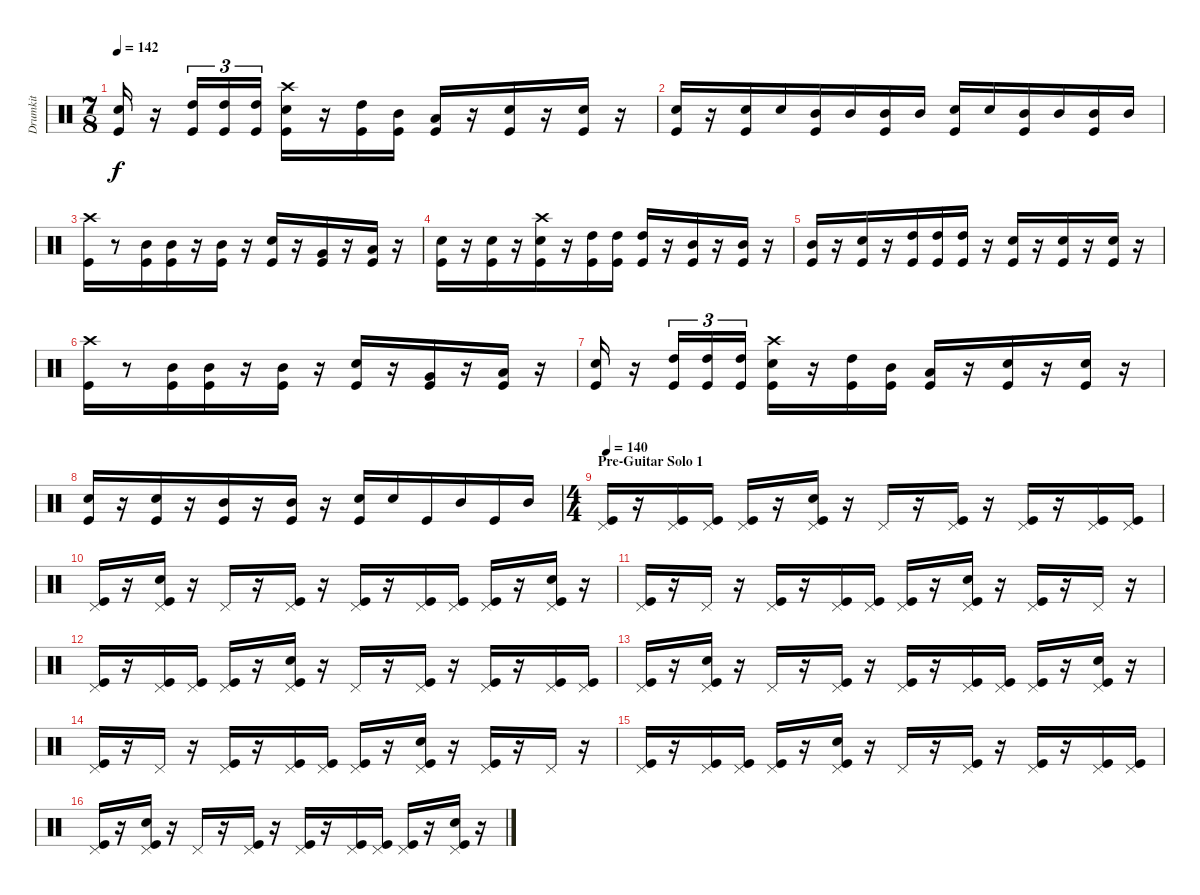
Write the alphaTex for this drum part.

\track ("Drumkit" "Drumkit") {instrument percussion}
\staff {score}
\articulation defaults
\ts (7 8)
\tempo 142
\clef neutral
\ks c
("Snare (hit) 2" "Kick (hit)").16{dy f} r.16 ("High Tom (hit)" "Kick (hit)").16{tu (3 2)} ("High Tom (hit)" "Kick (hit)").16{tu (3 2)} ("High Tom (hit)" "Kick (hit)").16{tu (3 2)} ("Crash high (hit)" "Snare (hit) 2" "Kick (hit)").16 r.16 ("High Tom (hit)" "Kick (hit)").16 ("Mid Tom (hit)" "Kick (hit)").16 ("Low Tom (hit)" "Kick (hit)").16 r.16 ("Snare (hit) 2" "Kick (hit)").16 r.16 ("Snare (hit) 2" "Kick (hit)").16 r.16 |
("Snare (hit) 2" "Kick (hit)").16 r.16 ("Snare (hit) 2" "Kick (hit)").16 "Snare (hit) 2".16 ("Mid Tom (hit)" "Kick (hit)").16 "Mid Tom (hit)".16 ("Mid Tom (hit)" "Kick (hit)").16 "Mid Tom (hit)".16 ("Snare (hit) 2" "Kick (hit)").16 "Snare (hit) 2".16 ("Mid Tom (hit)" "Kick (hit)").16 "Mid Tom (hit)".16 ("Mid Tom (hit)" "Kick (hit)").16 "Mid Tom (hit)".16 |
("Crash high (hit)" "Kick (hit)").16 r.8 ("Mid Tom (hit)" "Kick (hit)").16 ("Mid Tom (hit)" "Kick (hit)").16 r.16 ("Mid Tom (hit)" "Kick (hit)").16 r.16 ("Snare (hit) 2" "Kick (hit)").16 r.16 ("Very Low Tom (hit)" "Kick (hit)").16 r.16 ("Low Tom (hit)" "Kick (hit)").16 r.16 |
("Snare (hit) 2" "Kick (hit)").16 r.16 ("Snare (hit) 2" "Kick (hit)").16 r.16 ("Crash high (hit)" "Snare (hit) 2" "Kick (hit)").16 r.16 ("High Tom (hit)" "Kick (hit)").16 ("High Tom (hit)" "Kick (hit)").16 ("High Tom (hit)" "Kick (hit)").16 r.16 ("Mid Tom (hit)" "Kick (hit)").16 r.16 ("Mid Tom (hit)" "Kick (hit)").16 r.16 |
("Mid Tom (hit)" "Kick (hit)").16 r.16 ("Snare (hit) 2" "Kick (hit)").16 r.16 ("High Tom (hit)" "Kick (hit)").16 ("High Tom (hit)" "Kick (hit)").16 ("High Tom (hit)" "Kick (hit)").16 r.16 ("Snare (hit) 2" "Kick (hit)").16 r.16 ("Snare (hit) 2" "Kick (hit)").16 r.16 ("Snare (hit) 2" "Kick (hit)").16 r.16 |
("Crash high (hit)" "Kick (hit)").16 r.8 ("Mid Tom (hit)" "Kick (hit)").16 ("Mid Tom (hit)" "Kick (hit)").16 r.16 ("Mid Tom (hit)" "Kick (hit)").16 r.16 ("Snare (hit) 2" "Kick (hit)").16 r.16 ("Very Low Tom (hit)" "Kick (hit)").16 r.16 ("Low Tom (hit)" "Kick (hit)").16 r.16 |
("Snare (hit) 2" "Kick (hit)").16 r.16 ("High Tom (hit)" "Kick (hit)").16{tu (3 2)} ("High Tom (hit)" "Kick (hit)").16{tu (3 2)} ("High Tom (hit)" "Kick (hit)").16{tu (3 2)} ("Crash high (hit)" "Snare (hit) 2" "Kick (hit)").16 r.16 ("High Tom (hit)" "Kick (hit)").16 ("Mid Tom (hit)" "Kick (hit)").16 ("Low Tom (hit)" "Kick (hit)").16 r.16 ("Snare (hit) 2" "Kick (hit)").16 r.16 ("Snare (hit) 2" "Kick (hit)").16 r.16 |
("Snare (hit) 2" "Kick (hit)").16 r.16 ("Snare (hit) 2" "Kick (hit)").16 r.16 ("Mid Tom (hit)" "Kick (hit)").16 r.16 ("Mid Tom (hit)" "Kick (hit)").16 r.16 ("Snare (hit) 2" "Kick (hit)").16 "Snare (hit) 2".16 "Kick (hit)".16 "Mid Tom (hit)".16 "Kick (hit)".16 "Mid Tom (hit)".16 |
\ts (4 4)
\section ("" "Pre-Guitar Solo 1")
\tempo 140
("Pedal Hi-Hat (hit)" "Kick (hit)").16 r.16 ("Pedal Hi-Hat (hit)" "Kick (hit)").16 ("Pedal Hi-Hat (hit)" "Kick (hit)").16 ("Pedal Hi-Hat (hit)" "Kick (hit)").16 r.16 ("Snare (hit) 2" "Pedal Hi-Hat (hit)" "Kick (hit)").16 r.16 "Pedal Hi-Hat (hit)".16 r.16 ("Pedal Hi-Hat (hit)" "Kick (hit)").16 r.16 ("Pedal Hi-Hat (hit)" "Kick (hit)").16 r.16 ("Pedal Hi-Hat (hit)" "Kick (hit)").16 ("Pedal Hi-Hat (hit)" "Kick (hit)").16 |
("Pedal Hi-Hat (hit)" "Kick (hit)").16 r.16 ("Snare (hit) 2" "Pedal Hi-Hat (hit)" "Kick (hit)").16 r.16 "Pedal Hi-Hat (hit)".16 r.16 ("Pedal Hi-Hat (hit)" "Kick (hit)").16 r.16 ("Pedal Hi-Hat (hit)" "Kick (hit)").16 r.16 ("Pedal Hi-Hat (hit)" "Kick (hit)").16 ("Pedal Hi-Hat (hit)" "Kick (hit)").16 ("Pedal Hi-Hat (hit)" "Kick (hit)").16 r.16 ("Snare (hit) 2" "Pedal Hi-Hat (hit)" "Kick (hit)").16 r.16 |
("Pedal Hi-Hat (hit)" "Kick (hit)").16 r.16 "Pedal Hi-Hat (hit)".16 r.16 ("Pedal Hi-Hat (hit)" "Kick (hit)").16 r.16 ("Pedal Hi-Hat (hit)" "Kick (hit)").16 ("Pedal Hi-Hat (hit)" "Kick (hit)").16 ("Pedal Hi-Hat (hit)" "Kick (hit)").16 r.16 ("Snare (hit) 2" "Pedal Hi-Hat (hit)" "Kick (hit)").16 r.16 ("Pedal Hi-Hat (hit)" "Kick (hit)").16 r.16 "Pedal Hi-Hat (hit)".16 r.16 |
("Pedal Hi-Hat (hit)" "Kick (hit)").16 r.16 ("Pedal Hi-Hat (hit)" "Kick (hit)").16 ("Pedal Hi-Hat (hit)" "Kick (hit)").16 ("Pedal Hi-Hat (hit)" "Kick (hit)").16 r.16 ("Snare (hit) 2" "Pedal Hi-Hat (hit)" "Kick (hit)").16 r.16 "Pedal Hi-Hat (hit)".16 r.16 ("Pedal Hi-Hat (hit)" "Kick (hit)").16 r.16 ("Pedal Hi-Hat (hit)" "Kick (hit)").16 r.16 ("Pedal Hi-Hat (hit)" "Kick (hit)").16 ("Pedal Hi-Hat (hit)" "Kick (hit)").16 |
("Pedal Hi-Hat (hit)" "Kick (hit)").16 r.16 ("Snare (hit) 2" "Pedal Hi-Hat (hit)" "Kick (hit)").16 r.16 "Pedal Hi-Hat (hit)".16 r.16 ("Pedal Hi-Hat (hit)" "Kick (hit)").16 r.16 ("Pedal Hi-Hat (hit)" "Kick (hit)").16 r.16 ("Pedal Hi-Hat (hit)" "Kick (hit)").16 ("Pedal Hi-Hat (hit)" "Kick (hit)").16 ("Pedal Hi-Hat (hit)" "Kick (hit)").16 r.16 ("Snare (hit) 2" "Pedal Hi-Hat (hit)" "Kick (hit)").16 r.16 |
("Pedal Hi-Hat (hit)" "Kick (hit)").16 r.16 "Pedal Hi-Hat (hit)".16 r.16 ("Pedal Hi-Hat (hit)" "Kick (hit)").16 r.16 ("Pedal Hi-Hat (hit)" "Kick (hit)").16 ("Pedal Hi-Hat (hit)" "Kick (hit)").16 ("Pedal Hi-Hat (hit)" "Kick (hit)").16 r.16 ("Snare (hit) 2" "Pedal Hi-Hat (hit)" "Kick (hit)").16 r.16 ("Pedal Hi-Hat (hit)" "Kick (hit)").16 r.16 "Pedal Hi-Hat (hit)".16 r.16 |
("Pedal Hi-Hat (hit)" "Kick (hit)").16 r.16 ("Pedal Hi-Hat (hit)" "Kick (hit)").16 ("Pedal Hi-Hat (hit)" "Kick (hit)").16 ("Pedal Hi-Hat (hit)" "Kick (hit)").16 r.16 ("Snare (hit) 2" "Pedal Hi-Hat (hit)" "Kick (hit)").16 r.16 "Pedal Hi-Hat (hit)".16 r.16 ("Pedal Hi-Hat (hit)" "Kick (hit)").16 r.16 ("Pedal Hi-Hat (hit)" "Kick (hit)").16 r.16 ("Pedal Hi-Hat (hit)" "Kick (hit)").16 ("Pedal Hi-Hat (hit)" "Kick (hit)").16 |
("Pedal Hi-Hat (hit)" "Kick (hit)").16 r.16 ("Snare (hit) 2" "Pedal Hi-Hat (hit)" "Kick (hit)").16 r.16 "Pedal Hi-Hat (hit)".16 r.16 ("Pedal Hi-Hat (hit)" "Kick (hit)").16 r.16 ("Pedal Hi-Hat (hit)" "Kick (hit)").16 r.16 ("Pedal Hi-Hat (hit)" "Kick (hit)").16 ("Pedal Hi-Hat (hit)" "Kick (hit)").16 ("Pedal Hi-Hat (hit)" "Kick (hit)").16 r.16 ("Snare (hit) 2" "Pedal Hi-Hat (hit)" "Kick (hit)").16 r.16
